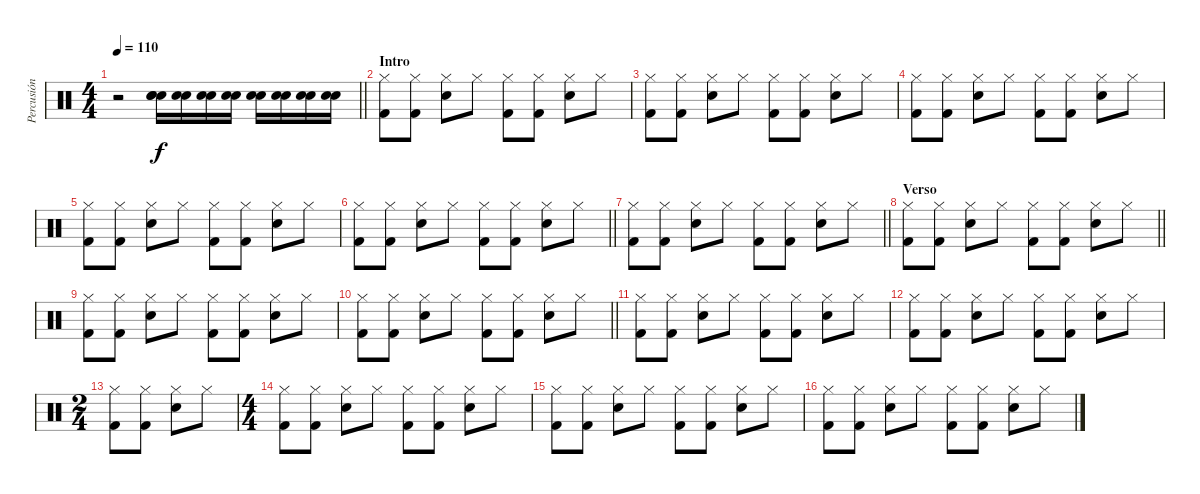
\track ("Percusión" "Percusión") {instrument percussion}
\staff {score}
\articulation defaults
\ts (4 4)
\tempo 110
\clef neutral
\barLineRight lightlight
\ks c
r.2{dy f} ("Electric Snare (hit)" "Snare (hit) 2" "Snare (hit) 2").16 ("Electric Snare (hit)" "Snare (hit) 2").16 ("Electric Snare (hit)" "Snare (hit) 2").16 ("Electric Snare (hit)" "Snare (hit) 2").16 ("Electric Snare (hit)" "Snare (hit) 2").16 ("Electric Snare (hit)" "Snare (hit) 2").16 ("Electric Snare (hit)" "Snare (hit) 2").16 ("Electric Snare (hit)" "Snare (hit) 2").16 |
\section ("" "Intro")
("Hi-Hat (closed)" "Kick (hit) 2").8 ("Hi-Hat (closed)" "Kick (hit) 2").8 ("Hi-Hat (closed)" "Snare (hit) 2").8 "Hi-Hat (closed)".8 ("Hi-Hat (closed)" "Kick (hit) 2").8 ("Hi-Hat (closed)" "Kick (hit) 2").8 ("Hi-Hat (closed)" "Snare (hit) 2").8 "Hi-Hat (closed)".8 |
("Hi-Hat (closed)" "Kick (hit) 2").8 ("Hi-Hat (closed)" "Kick (hit) 2").8 ("Hi-Hat (closed)" "Snare (hit) 2").8 "Hi-Hat (closed)".8 ("Hi-Hat (closed)" "Kick (hit) 2").8 ("Hi-Hat (closed)" "Kick (hit) 2").8 ("Hi-Hat (closed)" "Snare (hit) 2").8 "Hi-Hat (closed)".8 |
("Hi-Hat (closed)" "Kick (hit) 2").8 ("Hi-Hat (closed)" "Kick (hit) 2").8 ("Hi-Hat (closed)" "Snare (hit) 2").8 "Hi-Hat (closed)".8 ("Hi-Hat (closed)" "Kick (hit) 2").8 ("Hi-Hat (closed)" "Kick (hit) 2").8 ("Hi-Hat (closed)" "Snare (hit) 2").8 "Hi-Hat (closed)".8 |
("Hi-Hat (closed)" "Kick (hit) 2").8 ("Hi-Hat (closed)" "Kick (hit) 2").8 ("Hi-Hat (closed)" "Snare (hit) 2").8 "Hi-Hat (closed)".8 ("Hi-Hat (closed)" "Kick (hit) 2").8 ("Hi-Hat (closed)" "Kick (hit) 2").8 ("Hi-Hat (closed)" "Snare (hit) 2").8 "Hi-Hat (closed)".8 |
\barLineRight lightlight
("Hi-Hat (closed)" "Kick (hit) 2").8 ("Hi-Hat (closed)" "Kick (hit) 2").8 ("Hi-Hat (closed)" "Snare (hit) 2").8 "Hi-Hat (closed)".8 ("Hi-Hat (closed)" "Kick (hit) 2").8 ("Hi-Hat (closed)" "Kick (hit) 2").8 ("Hi-Hat (closed)" "Snare (hit) 2").8 "Hi-Hat (closed)".8 |
\section ("" "")
\barLineRight lightlight
("Hi-Hat (closed)" "Kick (hit) 2").8 ("Hi-Hat (closed)" "Kick (hit) 2").8 ("Hi-Hat (closed)" "Snare (hit) 2").8 "Hi-Hat (closed)".8 ("Hi-Hat (closed)" "Kick (hit) 2").8 ("Hi-Hat (closed)" "Kick (hit) 2").8 ("Hi-Hat (closed)" "Snare (hit) 2").8 "Hi-Hat (closed)".8 |
\section ("" "Verso")
\barLineRight lightlight
("Hi-Hat (closed)" "Kick (hit) 2").8 ("Hi-Hat (closed)" "Kick (hit) 2").8 ("Hi-Hat (closed)" "Snare (hit) 2").8 "Hi-Hat (closed)".8 ("Hi-Hat (closed)" "Kick (hit) 2").8 ("Hi-Hat (closed)" "Kick (hit) 2").8 ("Hi-Hat (closed)" "Snare (hit) 2").8 "Hi-Hat (closed)".8 |
("Hi-Hat (closed)" "Kick (hit) 2").8 ("Hi-Hat (closed)" "Kick (hit) 2").8 ("Hi-Hat (closed)" "Snare (hit) 2").8 "Hi-Hat (closed)".8 ("Hi-Hat (closed)" "Kick (hit) 2").8 ("Hi-Hat (closed)" "Kick (hit) 2").8 ("Hi-Hat (closed)" "Snare (hit) 2").8 "Hi-Hat (closed)".8 |
\barLineRight lightlight
("Hi-Hat (closed)" "Kick (hit) 2").8 ("Hi-Hat (closed)" "Kick (hit) 2").8 ("Hi-Hat (closed)" "Snare (hit) 2").8 "Hi-Hat (closed)".8 ("Hi-Hat (closed)" "Kick (hit) 2").8 ("Hi-Hat (closed)" "Kick (hit) 2").8 ("Hi-Hat (closed)" "Snare (hit) 2").8 "Hi-Hat (closed)".8 |
("Hi-Hat (closed)" "Kick (hit) 2").8 ("Hi-Hat (closed)" "Kick (hit) 2").8 ("Hi-Hat (closed)" "Snare (hit) 2").8 "Hi-Hat (closed)".8 ("Hi-Hat (closed)" "Kick (hit) 2").8 ("Hi-Hat (closed)" "Kick (hit) 2").8 ("Hi-Hat (closed)" "Snare (hit) 2").8 "Hi-Hat (closed)".8 |
("Hi-Hat (closed)" "Kick (hit) 2").8 ("Hi-Hat (closed)" "Kick (hit) 2").8 ("Hi-Hat (closed)" "Snare (hit) 2").8 "Hi-Hat (closed)".8 ("Hi-Hat (closed)" "Kick (hit) 2").8 ("Hi-Hat (closed)" "Kick (hit) 2").8 ("Hi-Hat (closed)" "Snare (hit) 2").8 "Hi-Hat (closed)".8 |
\ts (2 4)
("Hi-Hat (closed)" "Kick (hit) 2").8 ("Hi-Hat (closed)" "Kick (hit) 2").8 ("Hi-Hat (closed)" "Snare (hit) 2").8 "Hi-Hat (closed)".8 |
\ts (4 4)
("Hi-Hat (closed)" "Kick (hit) 2").8 ("Hi-Hat (closed)" "Kick (hit) 2").8 ("Hi-Hat (closed)" "Snare (hit) 2").8 "Hi-Hat (closed)".8 ("Hi-Hat (closed)" "Kick (hit) 2").8 ("Hi-Hat (closed)" "Kick (hit) 2").8 ("Hi-Hat (closed)" "Snare (hit) 2").8 "Hi-Hat (closed)".8 |
("Hi-Hat (closed)" "Kick (hit) 2").8 ("Hi-Hat (closed)" "Kick (hit) 2").8 ("Hi-Hat (closed)" "Snare (hit) 2").8 "Hi-Hat (closed)".8 ("Hi-Hat (closed)" "Kick (hit) 2").8 ("Hi-Hat (closed)" "Kick (hit) 2").8 ("Hi-Hat (closed)" "Snare (hit) 2").8 "Hi-Hat (closed)".8 |
("Hi-Hat (closed)" "Kick (hit) 2").8 ("Hi-Hat (closed)" "Kick (hit) 2").8 ("Hi-Hat (closed)" "Snare (hit) 2").8 "Hi-Hat (closed)".8 ("Hi-Hat (closed)" "Kick (hit) 2").8 ("Hi-Hat (closed)" "Kick (hit) 2").8 ("Hi-Hat (closed)" "Snare (hit) 2").8 "Hi-Hat (closed)".8
